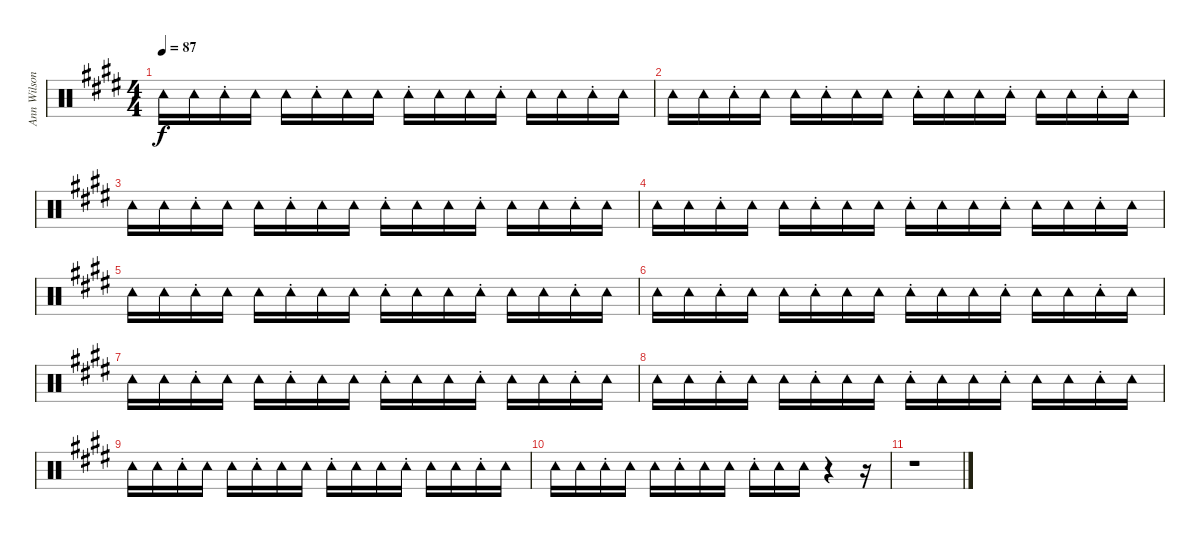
\track ("Ann Wilson Tambrine" "Ann Wilson") {instrument percussion}
\staff {score}
\articulation defaults
\ts (4 4)
\tempo 87
\clef neutral
\ks e "Tambourine (hit)".16{dy f} "Tambourine (hit)".16 "Tambourine (hit)"{st}.16 "Tambourine (hit)".16 "Tambourine (hit)".16 "Tambourine (hit)"{st}.16 "Tambourine (hit)".16 "Tambourine (hit)".16 "Tambourine (hit)"{st}.16 "Tambourine (hit)".16 "Tambourine (hit)".16 "Tambourine (hit)"{st}.16 "Tambourine (hit)".16 "Tambourine (hit)".16 "Tambourine (hit)"{st}.16 "Tambourine (hit)".16
|
"Tambourine (hit)".16 "Tambourine (hit)".16 "Tambourine (hit)"{st}.16 "Tambourine (hit)".16 "Tambourine (hit)".16 "Tambourine (hit)"{st}.16 "Tambourine (hit)".16 "Tambourine (hit)".16 "Tambourine (hit)"{st}.16 "Tambourine (hit)".16 "Tambourine (hit)".16 "Tambourine (hit)"{st}.16 "Tambourine (hit)".16 "Tambourine (hit)".16 "Tambourine (hit)"{st}.16 "Tambourine (hit)".16 |
"Tambourine (hit)".16 "Tambourine (hit)".16 "Tambourine (hit)"{st}.16 "Tambourine (hit)".16 "Tambourine (hit)".16 "Tambourine (hit)"{st}.16 "Tambourine (hit)".16 "Tambourine (hit)".16 "Tambourine (hit)"{st}.16 "Tambourine (hit)".16 "Tambourine (hit)".16 "Tambourine (hit)"{st}.16 "Tambourine (hit)".16 "Tambourine (hit)".16 "Tambourine (hit)"{st}.16 "Tambourine (hit)".16 |
"Tambourine (hit)".16 "Tambourine (hit)".16 "Tambourine (hit)"{st}.16 "Tambourine (hit)".16 "Tambourine (hit)".16 "Tambourine (hit)"{st}.16 "Tambourine (hit)".16 "Tambourine (hit)".16 "Tambourine (hit)"{st}.16 "Tambourine (hit)".16 "Tambourine (hit)".16 "Tambourine (hit)"{st}.16 "Tambourine (hit)".16 "Tambourine (hit)".16 "Tambourine (hit)"{st}.16 "Tambourine (hit)".16 |
"Tambourine (hit)".16 "Tambourine (hit)".16 "Tambourine (hit)"{st}.16 "Tambourine (hit)".16 "Tambourine (hit)".16 "Tambourine (hit)"{st}.16 "Tambourine (hit)".16 "Tambourine (hit)".16 "Tambourine (hit)"{st}.16 "Tambourine (hit)".16 "Tambourine (hit)".16 "Tambourine (hit)"{st}.16 "Tambourine (hit)".16 "Tambourine (hit)".16 "Tambourine (hit)"{st}.16 "Tambourine (hit)".16 |
"Tambourine (hit)".16 "Tambourine (hit)".16 "Tambourine (hit)"{st}.16 "Tambourine (hit)".16 "Tambourine (hit)".16 "Tambourine (hit)"{st}.16 "Tambourine (hit)".16 "Tambourine (hit)".16 "Tambourine (hit)"{st}.16 "Tambourine (hit)".16 "Tambourine (hit)".16 "Tambourine (hit)"{st}.16 "Tambourine (hit)".16 "Tambourine (hit)".16 "Tambourine (hit)"{st}.16 "Tambourine (hit)".16 |
"Tambourine (hit)".16 "Tambourine (hit)".16 "Tambourine (hit)"{st}.16 "Tambourine (hit)".16 "Tambourine (hit)".16 "Tambourine (hit)"{st}.16 "Tambourine (hit)".16 "Tambourine (hit)".16 "Tambourine (hit)"{st}.16 "Tambourine (hit)".16 "Tambourine (hit)".16 "Tambourine (hit)"{st}.16 "Tambourine (hit)".16 "Tambourine (hit)".16 "Tambourine (hit)"{st}.16 "Tambourine (hit)".16 |
"Tambourine (hit)".16 "Tambourine (hit)".16 "Tambourine (hit)"{st}.16 "Tambourine (hit)".16 "Tambourine (hit)".16 "Tambourine (hit)"{st}.16 "Tambourine (hit)".16 "Tambourine (hit)".16 "Tambourine (hit)"{st}.16 "Tambourine (hit)".16 "Tambourine (hit)".16 "Tambourine (hit)"{st}.16 "Tambourine (hit)".16 "Tambourine (hit)".16 "Tambourine (hit)"{st}.16 "Tambourine (hit)".16 |
"Tambourine (hit)".16 "Tambourine (hit)".16 "Tambourine (hit)"{st}.16 "Tambourine (hit)".16 "Tambourine (hit)".16 "Tambourine (hit)"{st}.16 "Tambourine (hit)".16 "Tambourine (hit)".16 "Tambourine (hit)"{st}.16 "Tambourine (hit)".16 "Tambourine (hit)".16 "Tambourine (hit)"{st}.16 "Tambourine (hit)".16 "Tambourine (hit)".16 "Tambourine (hit)"{st}.16 "Tambourine (hit)".16 |
"Tambourine (hit)".16 "Tambourine (hit)".16 "Tambourine (hit)"{st}.16 "Tambourine (hit)".16 "Tambourine (hit)".16 "Tambourine (hit)"{st}.16 "Tambourine (hit)".16 "Tambourine (hit)".16 "Tambourine (hit)"{st}.16 "Tambourine (hit)".16 "Tambourine (hit)".16 r.4 r.16 |
r.1
